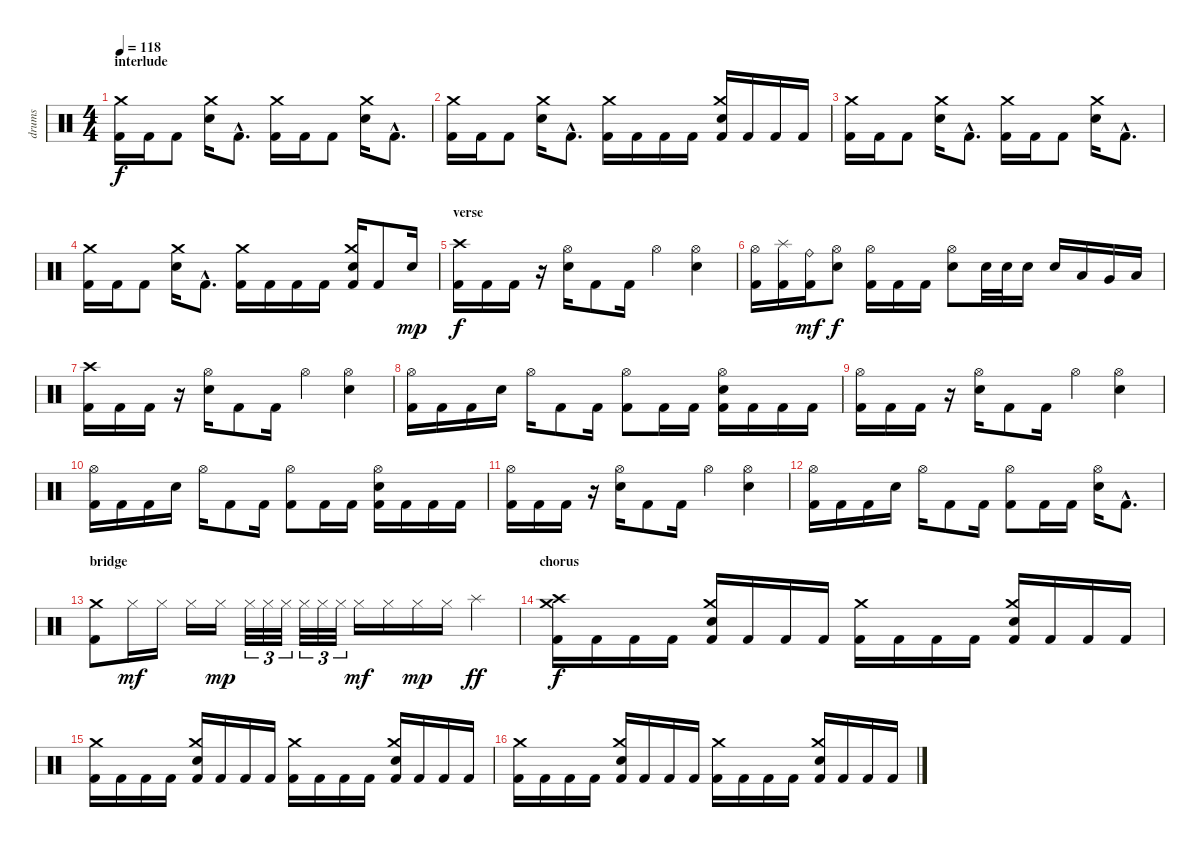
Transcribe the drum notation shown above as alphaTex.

\track ("drums" "drums") {instrument percussion}
\staff {score}
\articulation defaults
\ts (4 4)
\section ("" "interlude")
\tempo 118
\clef neutral
\ks c
("Kick (hit) 2" "Crash medium (hit)").16{dy f} "Kick (hit) 2".16 "Kick (hit) 2".8 ("Crash medium (hit)" "Snare (hit) 2").16 "Kick (hit) 2"{hac}.8{d} ("Kick (hit) 2" "Crash medium (hit)").16 "Kick (hit) 2".16 "Kick (hit) 2".8 ("Crash medium (hit)" "Snare (hit) 2").16 "Kick (hit) 2"{hac}.8{d} |
("Kick (hit) 2" "Crash medium (hit)").16 "Kick (hit) 2".16 "Kick (hit) 2".8 ("Crash medium (hit)" "Snare (hit) 2").16 "Kick (hit) 2"{hac}.8{d} ("Kick (hit) 2" "Crash medium (hit)").16 "Kick (hit) 2".16 "Kick (hit) 2".16 "Kick (hit) 2".16 ("Kick (hit) 2" "Crash medium (hit)" "Snare (hit) 2").16 "Kick (hit) 2".16 "Kick (hit) 2".16 "Kick (hit) 2".16 |
("Kick (hit) 2" "Crash medium (hit)").16 "Kick (hit) 2".16 "Kick (hit) 2".8 ("Crash medium (hit)" "Snare (hit) 2").16 "Kick (hit) 2"{hac}.8{d} ("Kick (hit) 2" "Crash medium (hit)").16 "Kick (hit) 2".16 "Kick (hit) 2".8 ("Crash medium (hit)" "Snare (hit) 2").16 "Kick (hit) 2"{hac}.8{d} |
("Kick (hit) 2" "Crash medium (hit)").16 "Kick (hit) 2".16 "Kick (hit) 2".8 ("Crash medium (hit)" "Snare (hit) 2").16 "Kick (hit) 2"{hac}.8{d} ("Kick (hit) 2" "Crash medium (hit)").16 "Kick (hit) 2".16 "Kick (hit) 2".16 "Kick (hit) 2".16 ("Kick (hit) 2" "Crash medium (hit)" "Snare (hit) 2").16 "Kick (hit) 2".8 "Snare (hit) 2".16{dy mp} |
\section ("" "verse")
("Kick (hit) 2" "Crash high (hit)").16{dy f} "Kick (hit) 2".16 "Kick (hit) 2".16 r.16 ("Hi-Hat (open)" "Snare (hit) 2").16 "Kick (hit) 2".8 "Kick (hit) 2".16 "Hi-Hat (open)".4 ("Hi-Hat (open)" "Snare (hit) 2").4 |
("Kick (hit) 2" "Hi-Hat (open)").16 ("Kick (hit) 2" "Splash (hit)").16 ("Kick (hit) 2" "Ride (bell)").16{dy mf} ("Hi-Hat (open)" "Snare (hit) 2").8{dy f} ("Kick (hit) 2" "Hi-Hat (open)").16 "Kick (hit) 2".16 "Kick (hit) 2".16 ("Hi-Hat (open)" "Snare (hit) 2").8 "Snare (hit) 2".32 "Snare (hit) 2".32 "Snare (hit) 2".16 "Snare (hit) 2".16 "Low Tom (hit)".16 "Very Low Tom (hit)".16 "Low Floor Tom (hit)".16 |
("Kick (hit) 2" "Crash high (hit)").16 "Kick (hit) 2".16 "Kick (hit) 2".16 r.16 ("Hi-Hat (open)" "Snare (hit) 2").16 "Kick (hit) 2".8 "Kick (hit) 2".16 "Hi-Hat (open)".4 ("Hi-Hat (open)" "Snare (hit) 2").4 |
("Kick (hit) 2" "Hi-Hat (open)").16 "Kick (hit) 2".16 "Kick (hit) 2".16 "Snare (hit) 2".16 "Hi-Hat (open)".16 "Kick (hit) 2".8 "Kick (hit) 2".16 ("Kick (hit) 2" "Hi-Hat (open)").8 "Kick (hit) 2".16 "Kick (hit) 2".16 ("Kick (hit) 2" "Hi-Hat (open)" "Snare (hit) 2").16 "Kick (hit) 2".16 "Kick (hit) 2".16 "Kick (hit) 2".16 |
("Kick (hit) 2" "Hi-Hat (open)").16 "Kick (hit) 2".16 "Kick (hit) 2".16 r.16 ("Hi-Hat (open)" "Snare (hit) 2").16 "Kick (hit) 2".8 "Kick (hit) 2".16 "Hi-Hat (open)".4 ("Hi-Hat (open)" "Snare (hit) 2").4 |
("Kick (hit) 2" "Hi-Hat (open)").16 "Kick (hit) 2".16 "Kick (hit) 2".16 "Snare (hit) 2".16 "Hi-Hat (open)".16 "Kick (hit) 2".8 "Kick (hit) 2".16 ("Kick (hit) 2" "Hi-Hat (open)").8 "Kick (hit) 2".16 "Kick (hit) 2".16 ("Kick (hit) 2" "Hi-Hat (open)" "Snare (hit) 2").16 "Kick (hit) 2".16 "Kick (hit) 2".16 "Kick (hit) 2".16 |
("Kick (hit) 2" "Hi-Hat (open)").16 "Kick (hit) 2".16 "Kick (hit) 2".16 r.16 ("Hi-Hat (open)" "Snare (hit) 2").16 "Kick (hit) 2".8 "Kick (hit) 2".16 "Hi-Hat (open)".4 ("Hi-Hat (open)" "Snare (hit) 2").4 |
("Kick (hit) 2" "Hi-Hat (open)").16 "Kick (hit) 2".16 "Kick (hit) 2".16 "Snare (hit) 2".16 "Hi-Hat (open)".16 "Kick (hit) 2".8 "Kick (hit) 2".16 ("Kick (hit) 2" "Hi-Hat (open)").8 "Kick (hit) 2".16 "Kick (hit) 2".16 ("Hi-Hat (open)" "Snare (hit) 2").16 "Kick (hit) 2"{hac}.8{d} |
\section ("" "bridge")
("Kick (hit) 2" "Crash medium (hit)").8 "Hi-Hat (closed)".16{dy mf} "Hi-Hat (closed)".16 "Hi-Hat (closed)".16 "Hi-Hat (closed)".16{dy mp} "Hi-Hat (closed)".32{tu (3 2)} "Hi-Hat (closed)".32{tu (3 2)} "Hi-Hat (closed)".32{tu (3 2)} "Hi-Hat (closed)".32{tu (3 2)} "Hi-Hat (closed)".32{tu (3 2)} "Hi-Hat (closed)".32{tu (3 2)} "Hi-Hat (closed)".16{dy mf} "Hi-Hat (closed)".16 "Hi-Hat (closed)".16{dy mp} "Hi-Hat (closed)".16 "Splash (hit)".4{dy ff} |
\section ("" "chorus")
("Kick (hit) 2" "Crash high (hit)" "Crash medium (hit)").16{dy f} "Kick (hit) 2".16 "Kick (hit) 2".16 "Kick (hit) 2".16 ("Kick (hit) 2" "Crash medium (hit)" "Snare (hit) 2").16 "Kick (hit) 2".16 "Kick (hit) 2".16 "Kick (hit) 2".16 ("Kick (hit) 2" "Crash medium (hit)").16 "Kick (hit) 2".16 "Kick (hit) 2".16 "Kick (hit) 2".16 ("Kick (hit) 2" "Crash medium (hit)" "Snare (hit) 2").16 "Kick (hit) 2".16 "Kick (hit) 2".16 "Kick (hit) 2".16 |
("Kick (hit) 2" "Crash medium (hit)").16 "Kick (hit) 2".16 "Kick (hit) 2".16 "Kick (hit) 2".16 ("Kick (hit) 2" "Crash medium (hit)" "Snare (hit) 2").16 "Kick (hit) 2".16 "Kick (hit) 2".16 "Kick (hit) 2".16 ("Kick (hit) 2" "Crash medium (hit)").16 "Kick (hit) 2".16 "Kick (hit) 2".16 "Kick (hit) 2".16 ("Kick (hit) 2" "Crash medium (hit)" "Snare (hit) 2").16 "Kick (hit) 2".16 "Kick (hit) 2".16 "Kick (hit) 2".16 |
("Kick (hit) 2" "Crash medium (hit)").16 "Kick (hit) 2".16 "Kick (hit) 2".16 "Kick (hit) 2".16 ("Kick (hit) 2" "Crash medium (hit)" "Snare (hit) 2").16 "Kick (hit) 2".16 "Kick (hit) 2".16 "Kick (hit) 2".16 ("Kick (hit) 2" "Crash medium (hit)").16 "Kick (hit) 2".16 "Kick (hit) 2".16 "Kick (hit) 2".16 ("Kick (hit) 2" "Crash medium (hit)" "Snare (hit) 2").16 "Kick (hit) 2".16 "Kick (hit) 2".16 "Kick (hit) 2".16
